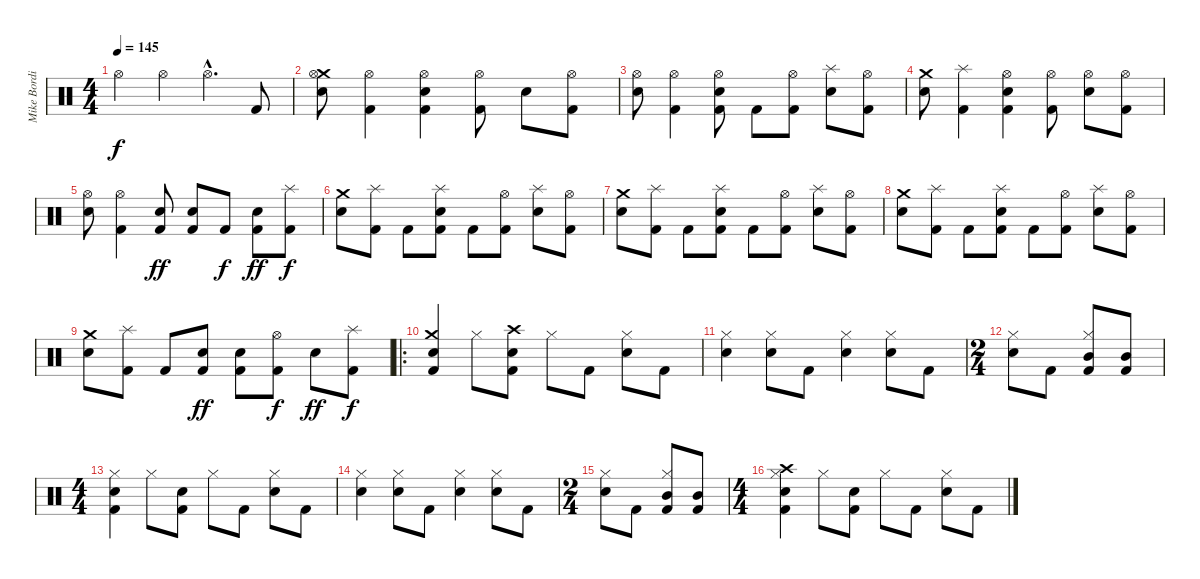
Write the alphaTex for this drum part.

\track ("Mike Bordin" "Mike Bordi") {instrument percussion}
\staff {score}
\articulation defaults
\ts (4 4)
\tempo 145
\clef neutral
\ks c "Hi-Hat (open)".4{dy f} "Hi-Hat (open)".4 "Hi-Hat (open)"{hac}.4{d} "Kick (hit) 2".8
|
("Crash medium (hit)" "Hi-Hat (open)" "Electric Snare (hit)").8 ("Hi-Hat (open)" "Kick (hit) 2").4 ("Hi-Hat (open)" "Electric Snare (hit)" "Kick (hit) 2").4 ("Hi-Hat (open)" "Kick (hit) 2").8 "Electric Snare (hit)".8 ("Hi-Hat (open)" "Kick (hit) 2").8 |
("Hi-Hat (open)" "Electric Snare (hit)").8 ("Hi-Hat (open)" "Kick (hit) 2").4 ("Hi-Hat (open)" "Electric Snare (hit)" "Kick (hit) 2").8 "Kick (hit) 2".8 ("Hi-Hat (open)" "Kick (hit) 2").8 ("Splash (hit)" "Electric Snare (hit)").8 ("Hi-Hat (open)" "Kick (hit) 2").8 |
("Crash medium (hit)" "Electric Snare (hit)").8 ("Splash (hit)" "Kick (hit) 2").4 ("Hi-Hat (open)" "Electric Snare (hit)" "Kick (hit) 2").4 ("Hi-Hat (open)" "Kick (hit) 2").8 ("Hi-Hat (open)" "Electric Snare (hit)").8 ("Hi-Hat (open)" "Kick (hit) 2").8 |
("Hi-Hat (open)" "Electric Snare (hit)").8 ("Hi-Hat (open)" "Kick (hit) 2").4 ("Electric Snare (hit)" "Kick (hit) 2").8{dy ff} ("Electric Snare (hit)" "Kick (hit) 2").8 "Kick (hit) 2".8{dy f} ("Electric Snare (hit)" "Kick (hit) 2").8{dy ff} ("Splash (hit)" "Kick (hit) 2").8{dy f} |
("Crash medium (hit)" "Electric Snare (hit)").8 ("Splash (hit)" "Kick (hit) 2").8 "Kick (hit) 2".8 ("Splash (hit)" "Electric Snare (hit)" "Kick (hit) 2").8 "Kick (hit) 2".8 ("Hi-Hat (open)" "Kick (hit) 2").8 ("Splash (hit)" "Electric Snare (hit)").8 ("Hi-Hat (open)" "Kick (hit) 2").8 |
("Crash medium (hit)" "Electric Snare (hit)").8 ("Splash (hit)" "Kick (hit) 2").8 "Kick (hit) 2".8 ("Splash (hit)" "Electric Snare (hit)" "Kick (hit) 2").8 "Kick (hit) 2".8 ("Hi-Hat (open)" "Kick (hit) 2").8 ("Splash (hit)" "Electric Snare (hit)").8 ("Hi-Hat (open)" "Kick (hit) 2").8 |
("Crash medium (hit)" "Electric Snare (hit)").8 ("Splash (hit)" "Kick (hit) 2").8 "Kick (hit) 2".8 ("Splash (hit)" "Electric Snare (hit)" "Kick (hit) 2").8 "Kick (hit) 2".8 ("Hi-Hat (open)" "Kick (hit) 2").8 ("Splash (hit)" "Electric Snare (hit)").8 ("Hi-Hat (open)" "Kick (hit) 2").8 |
("Crash medium (hit)" "Electric Snare (hit)").8 ("Splash (hit)" "Kick (hit) 2").8 "Kick (hit) 2".8 ("Electric Snare (hit)" "Kick (hit) 2").8{dy ff} ("Electric Snare (hit)" "Kick (hit) 2").8 ("Hi-Hat (open)" "Kick (hit) 2").8{dy f} "Electric Snare (hit)".8{dy ff} ("Splash (hit)" "Kick (hit) 2").8{dy f} |
\ro
("Crash medium (hit)" "Electric Snare (hit)" "Kick (hit) 2").4 "Hi-Hat (closed)".8 ("Crash high (hit)" "Electric Snare (hit)" "Kick (hit) 2").8 "Hi-Hat (closed)".8 "Kick (hit) 2".8 ("Hi-Hat (closed)" "Electric Snare (hit)").8 "Kick (hit) 2".8 |
("Hi-Hat (closed)" "Electric Snare (hit)").4 ("Hi-Hat (closed)" "Electric Snare (hit)").8 "Kick (hit) 2".8 ("Hi-Hat (closed)" "Electric Snare (hit)").4 ("Hi-Hat (closed)" "Electric Snare (hit)").8 "Kick (hit) 2".8 |
\ts (2 4)
("Hi-Hat (closed)" "Electric Snare (hit)").8 "Kick (hit) 2".8 ("Hi-Hat (closed)" "Mid Tom (hit)" "Kick (hit) 2").8 ("Mid Tom (hit)" "Kick (hit) 2").8 |
\ts (4 4)
("Hi-Hat (closed)" "Electric Snare (hit)" "Kick (hit) 2").4 "Hi-Hat (closed)".8 ("Electric Snare (hit)" "Kick (hit) 2").8 "Hi-Hat (closed)".8 "Kick (hit) 2".8 ("Hi-Hat (closed)" "Electric Snare (hit)").8 "Kick (hit) 2".8 |
("Hi-Hat (closed)" "Electric Snare (hit)").4 ("Hi-Hat (closed)" "Electric Snare (hit)").8 "Kick (hit) 2".8 ("Hi-Hat (closed)" "Electric Snare (hit)").4 ("Hi-Hat (closed)" "Electric Snare (hit)").8 "Kick (hit) 2".8 |
\ts (2 4)
("Hi-Hat (closed)" "Electric Snare (hit)").8 "Kick (hit) 2".8 ("Hi-Hat (closed)" "Mid Tom (hit)" "Kick (hit) 2").8 ("Mid Tom (hit)" "Kick (hit) 2").8 |
\ts (4 4)
("Crash high (hit)" "Hi-Hat (closed)" "Electric Snare (hit)" "Kick (hit) 2").4 "Hi-Hat (closed)".8 ("Electric Snare (hit)" "Kick (hit) 2").8 "Hi-Hat (closed)".8 "Kick (hit) 2".8 ("Hi-Hat (closed)" "Electric Snare (hit)").8 "Kick (hit) 2".8
